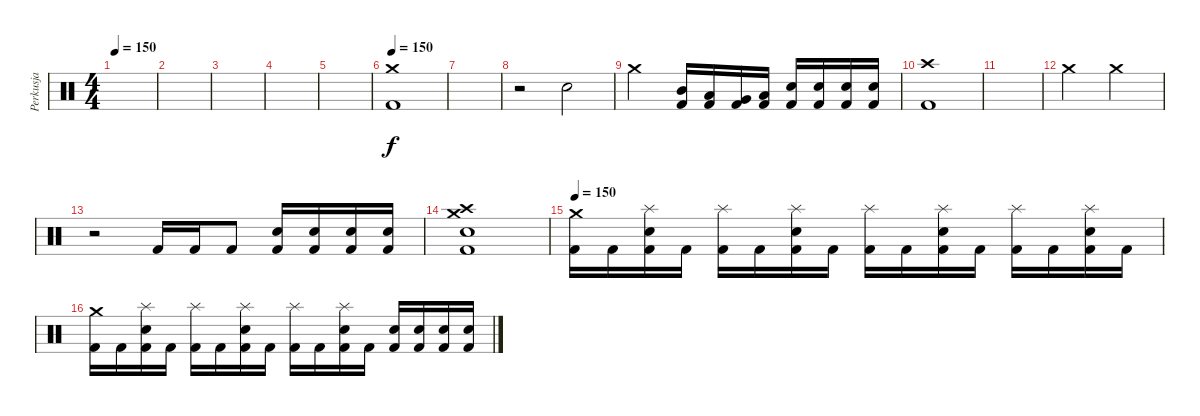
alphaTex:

\track ("Perkusja" "Perkusja") {instrument percussion}
\staff {score}
\articulation defaults
\ts (4 4)
\tempo 150
\clef neutral
\ks c
|
|
|
|
|
\tempo 150
("Crash medium (hit)" "Kick (hit) 2").1 |
|
r.2 "Electric Snare (hit)".2 |
"Crash medium (hit)".2 ("Mid Tom (hit)" "Kick (hit) 2").16 ("Low Tom (hit)" "Kick (hit) 2").16 ("Very Low Tom (hit)" "Kick (hit) 2").16 ("Low Floor Tom (hit)" "Kick (hit) 2").16 ("Electric Snare (hit)" "Kick (hit) 2").16 ("Electric Snare (hit)" "Kick (hit) 2").16 ("Electric Snare (hit)" "Kick (hit) 2").16 ("Electric Snare (hit)" "Kick (hit) 2").16 |
("Crash high (hit)" "Kick (hit) 2").1 |
|
"Crash medium (hit)".2 "Crash medium (hit)".2 |
r.2 "Kick (hit) 2".16 "Kick (hit) 2".16 "Kick (hit) 2".8 ("Electric Snare (hit)" "Kick (hit) 2").16 ("Electric Snare (hit)" "Kick (hit) 2").16 ("Electric Snare (hit)" "Kick (hit) 2").16 ("Electric Snare (hit)" "Kick (hit) 2").16 |
("Snare (hit) 2" "Kick (hit) 2" "Crash high (hit)" "Crash medium (hit)").1 |
\tempo 150
("Crash medium (hit)" "Kick (hit) 2").16 "Kick (hit) 2".16 ("Splash (hit)" "Electric Snare (hit)" "Kick (hit) 2").16 "Kick (hit) 2".16 ("Splash (hit)" "Kick (hit) 2").16 "Kick (hit) 2".16 ("Splash (hit)" "Electric Snare (hit)" "Kick (hit) 2").16 "Kick (hit) 2".16 ("Splash (hit)" "Kick (hit) 2").16 "Kick (hit) 2".16 ("Splash (hit)" "Electric Snare (hit)" "Kick (hit) 2").16 "Kick (hit) 2".16 ("Splash (hit)" "Kick (hit) 2").16 "Kick (hit) 2".16 ("Splash (hit)" "Electric Snare (hit)" "Kick (hit) 2").16 "Kick (hit) 2".16 |
("Crash medium (hit)" "Kick (hit) 2").16 "Kick (hit) 2".16 ("Splash (hit)" "Electric Snare (hit)" "Kick (hit) 2").16 "Kick (hit) 2".16 ("Splash (hit)" "Kick (hit) 2").16 "Kick (hit) 2".16 ("Splash (hit)" "Electric Snare (hit)" "Kick (hit) 2").16 "Kick (hit) 2".16 ("Splash (hit)" "Kick (hit) 2").16 "Kick (hit) 2".16 ("Splash (hit)" "Electric Snare (hit)" "Kick (hit) 2").16 "Kick (hit) 2".16 ("Electric Snare (hit)" "Kick (hit) 2").16 ("Electric Snare (hit)" "Kick (hit) 2").16 ("Electric Snare (hit)" "Kick (hit) 2").16 ("Electric Snare (hit)" "Kick (hit) 2").16
